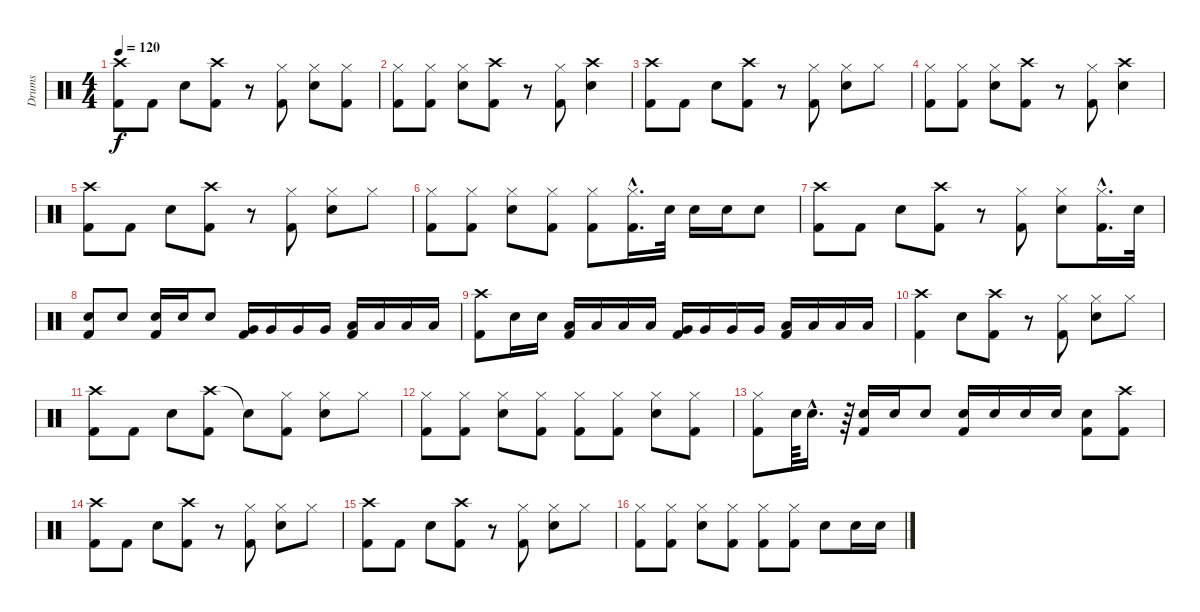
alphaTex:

\track ("Drums" "Drums") {instrument percussion}
\staff {score}
\articulation defaults
\ts (4 4)
\tempo 120
\clef neutral
\ks c
("Crash high (hit)" "Kick (hit) 2").8{dy f} "Kick (hit) 2".8 "Electric Snare (hit)".8 ("Crash high (hit)" "Kick (hit) 2").8 r.8 ("Hi-Hat (closed)" "Kick (hit) 2").8 ("Hi-Hat (closed)" "Electric Snare (hit)").8 ("Hi-Hat (closed)" "Kick (hit) 2").8 |
("Hi-Hat (closed)" "Kick (hit) 2").8 ("Hi-Hat (closed)" "Kick (hit) 2").8 ("Hi-Hat (closed)" "Electric Snare (hit)").8 ("Crash high (hit)" "Kick (hit) 2").8 r.8 ("Hi-Hat (closed)" "Kick (hit) 2").8 ("Crash high (hit)" "Electric Snare (hit)").4 |
("Crash high (hit)" "Kick (hit) 2").8 "Kick (hit) 2".8 "Electric Snare (hit)".8 ("Crash high (hit)" "Kick (hit) 2").8 r.8 ("Hi-Hat (closed)" "Kick (hit) 2").8 ("Hi-Hat (closed)" "Electric Snare (hit)").8 "Hi-Hat (closed)".8 |
("Hi-Hat (closed)" "Kick (hit) 2").8 ("Hi-Hat (closed)" "Kick (hit) 2").8 ("Hi-Hat (closed)" "Electric Snare (hit)").8 ("Crash high (hit)" "Kick (hit) 2").8 r.8 ("Hi-Hat (closed)" "Kick (hit) 2").8 ("Crash high (hit)" "Electric Snare (hit)").4 |
("Crash high (hit)" "Kick (hit) 2").8 "Kick (hit) 2".8 "Electric Snare (hit)".8 ("Crash high (hit)" "Kick (hit) 2").8 r.8 ("Hi-Hat (closed)" "Kick (hit) 2").8 ("Hi-Hat (closed)" "Electric Snare (hit)").8 "Hi-Hat (closed)".8 |
("Hi-Hat (closed)" "Kick (hit) 2").8 ("Hi-Hat (closed)" "Kick (hit) 2").8 ("Hi-Hat (closed)" "Electric Snare (hit)").8 ("Hi-Hat (closed)" "Kick (hit) 2").8 ("Hi-Hat (closed)" "Kick (hit) 2").8 ("Hi-Hat (closed)"{hac} "Kick (hit) 2"{hac}).16{d} "Electric Snare (hit)".32 "Electric Snare (hit)".16 "Electric Snare (hit)".16 "Electric Snare (hit)".8 |
("Crash high (hit)" "Kick (hit) 2").8 "Kick (hit) 2".8 "Electric Snare (hit)".8 ("Crash high (hit)" "Kick (hit) 2").8 r.8 ("Hi-Hat (closed)" "Kick (hit) 2").8 ("Hi-Hat (closed)" "Electric Snare (hit)").8 ("Hi-Hat (closed)"{hac} "Kick (hit) 2"{hac}).16{d} "Electric Snare (hit)".32 |
("Electric Snare (hit)" "Kick (hit) 2").8 "Electric Snare (hit)".8 ("Electric Snare (hit)" "Kick (hit) 2").16 "Electric Snare (hit)".16 "Electric Snare (hit)".8 ("Kick (hit) 2" "Very Low Tom (hit)").16 "Very Low Tom (hit)".16 "Very Low Tom (hit)".16 "Very Low Tom (hit)".16 ("Kick (hit) 2" "Low Floor Tom (hit)").16 "Low Floor Tom (hit)".16 "Low Floor Tom (hit)".16 "Low Floor Tom (hit)".16 |
("Crash high (hit)" "Kick (hit) 2").8 "Electric Snare (hit)".16 "Electric Snare (hit)".16 ("Kick (hit) 2" "Low Tom (hit)").16 "Low Tom (hit)".16 "Low Tom (hit)".16 "Low Tom (hit)".16 ("Kick (hit) 2" "Very Low Tom (hit)").16 "Very Low Tom (hit)".16 "Very Low Tom (hit)".16 "Very Low Tom (hit)".16 ("Kick (hit) 2" "Low Floor Tom (hit)").16 "Low Floor Tom (hit)".16 "Low Floor Tom (hit)".16 "Low Floor Tom (hit)".16 |
("Crash high (hit)" "Kick (hit) 2").4 "Electric Snare (hit)".8 ("Crash high (hit)" "Kick (hit) 2").8 r.8 ("Hi-Hat (closed)" "Kick (hit) 2").8 ("Hi-Hat (closed)" "Electric Snare (hit)").8 "Hi-Hat (closed)".8 |
("Crash high (hit)" "Kick (hit) 2").8 "Kick (hit) 2".8 "Electric Snare (hit)".8 ("Crash high (hit)" "Kick (hit) 2").8 "Electric Snare (hit)"{t}.8 ("Hi-Hat (closed)" "Kick (hit) 2").8 ("Hi-Hat (closed)" "Electric Snare (hit)").8 "Hi-Hat (closed)".8 |
("Hi-Hat (closed)" "Kick (hit) 2").8 ("Hi-Hat (closed)" "Kick (hit) 2").8 ("Hi-Hat (closed)" "Electric Snare (hit)").8 ("Hi-Hat (closed)" "Kick (hit) 2").8 ("Hi-Hat (closed)" "Kick (hit) 2").8 ("Hi-Hat (closed)" "Kick (hit) 2").8 ("Hi-Hat (closed)" "Electric Snare (hit)").8 ("Hi-Hat (closed)" "Kick (hit) 2").8 |
("Hi-Hat (closed)" "Kick (hit) 2").8 "Electric Snare (hit)".64 "Electric Snare (hit)"{hac}.16{d} r.64 ("Electric Snare (hit)" "Kick (hit) 2").16 "Electric Snare (hit)".16 "Electric Snare (hit)".8 ("Electric Snare (hit)" "Kick (hit) 2").16 "Electric Snare (hit)".16 "Electric Snare (hit)".16 "Electric Snare (hit)".16 ("Electric Snare (hit)" "Kick (hit) 2").8 ("Crash high (hit)" "Kick (hit) 2").8 |
("Crash high (hit)" "Kick (hit) 2").8 "Kick (hit) 2".8 "Electric Snare (hit)".8 ("Crash high (hit)" "Kick (hit) 2").8 r.8 ("Hi-Hat (closed)" "Kick (hit) 2").8 ("Hi-Hat (closed)" "Electric Snare (hit)").8 "Hi-Hat (closed)".8 |
("Crash high (hit)" "Kick (hit) 2").8 "Kick (hit) 2".8 "Electric Snare (hit)".8 ("Crash high (hit)" "Kick (hit) 2").8 r.8 ("Hi-Hat (closed)" "Kick (hit) 2").8 ("Hi-Hat (closed)" "Electric Snare (hit)").8 "Hi-Hat (closed)".8 |
("Hi-Hat (closed)" "Kick (hit) 2").8 ("Hi-Hat (closed)" "Kick (hit) 2").8 ("Hi-Hat (closed)" "Electric Snare (hit)").8 ("Hi-Hat (closed)" "Kick (hit) 2").8 ("Hi-Hat (closed)" "Kick (hit) 2").8 ("Hi-Hat (closed)" "Kick (hit) 2").8 "Electric Snare (hit)".8 "Electric Snare (hit)".16 "Electric Snare (hit)".16
